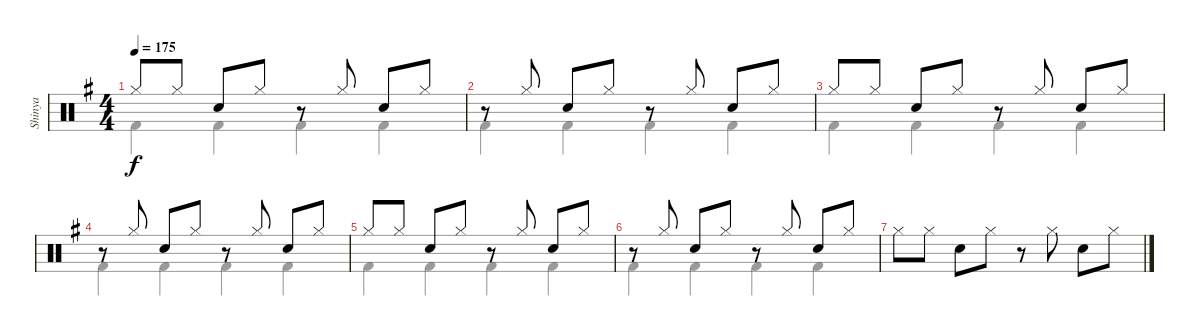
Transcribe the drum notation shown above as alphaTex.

\track ("Shinya" "Shinya") {instrument percussion}
\staff {score}
\articulation defaults
\voice
\ts (4 4)
\tempo 175
\clef neutral
\ks g "Hi-Hat (closed)".8{dy f} "Hi-Hat (closed)".8 "Snare (hit) 2".8 "Hi-Hat (closed)".8
r.8 "Hi-Hat (closed)".8 "Snare (hit) 2".8 "Hi-Hat (closed)".8 |
r.8 "Hi-Hat (closed)".8 "Snare (hit) 2".8 "Hi-Hat (closed)".8 r.8 "Hi-Hat (closed)".8 "Snare (hit) 2".8 "Hi-Hat (closed)".8 |
"Hi-Hat (closed)".8 "Hi-Hat (closed)".8 "Snare (hit) 2".8 "Hi-Hat (closed)".8 r.8 "Hi-Hat (closed)".8 "Snare (hit) 2".8 "Hi-Hat (closed)".8 |
r.8 "Hi-Hat (closed)".8 "Snare (hit) 2".8 "Hi-Hat (closed)".8 r.8 "Hi-Hat (closed)".8 "Snare (hit) 2".8 "Hi-Hat (closed)".8 |
"Hi-Hat (closed)".8 "Hi-Hat (closed)".8 "Snare (hit) 2".8 "Hi-Hat (closed)".8 r.8 "Hi-Hat (closed)".8 "Snare (hit) 2".8 "Hi-Hat (closed)".8 |
r.8 "Hi-Hat (closed)".8 "Snare (hit) 2".8 "Hi-Hat (closed)".8 r.8 "Hi-Hat (closed)".8 "Snare (hit) 2".8 "Hi-Hat (closed)".8 |
"Hi-Hat (closed)".8 "Hi-Hat (closed)".8 "Snare (hit) 2".8 "Hi-Hat (closed)".8 r.8 "Hi-Hat (closed)".8 "Snare (hit) 2".8 "Hi-Hat (closed)".8 |
\voice
\clef neutral
\ottava regular
\simile none
\ks g "Kick (hit) 2".4{dy f} "Kick (hit) 2".4 "Kick (hit) 2".4 "Kick (hit) 2".4
|
"Kick (hit) 2".4 "Kick (hit) 2".4 "Kick (hit) 2".4 "Kick (hit) 2".4 |
"Kick (hit) 2".4 "Kick (hit) 2".4 "Kick (hit) 2".4 "Kick (hit) 2".4 |
"Kick (hit) 2".4 "Kick (hit) 2".4 "Kick (hit) 2".4 "Kick (hit) 2".4 |
"Kick (hit) 2".4 "Kick (hit) 2".4 "Kick (hit) 2".4 "Kick (hit) 2".4 |
"Kick (hit) 2".4 "Kick (hit) 2".4 "Kick (hit) 2".4 "Kick (hit) 2".4 |
|
